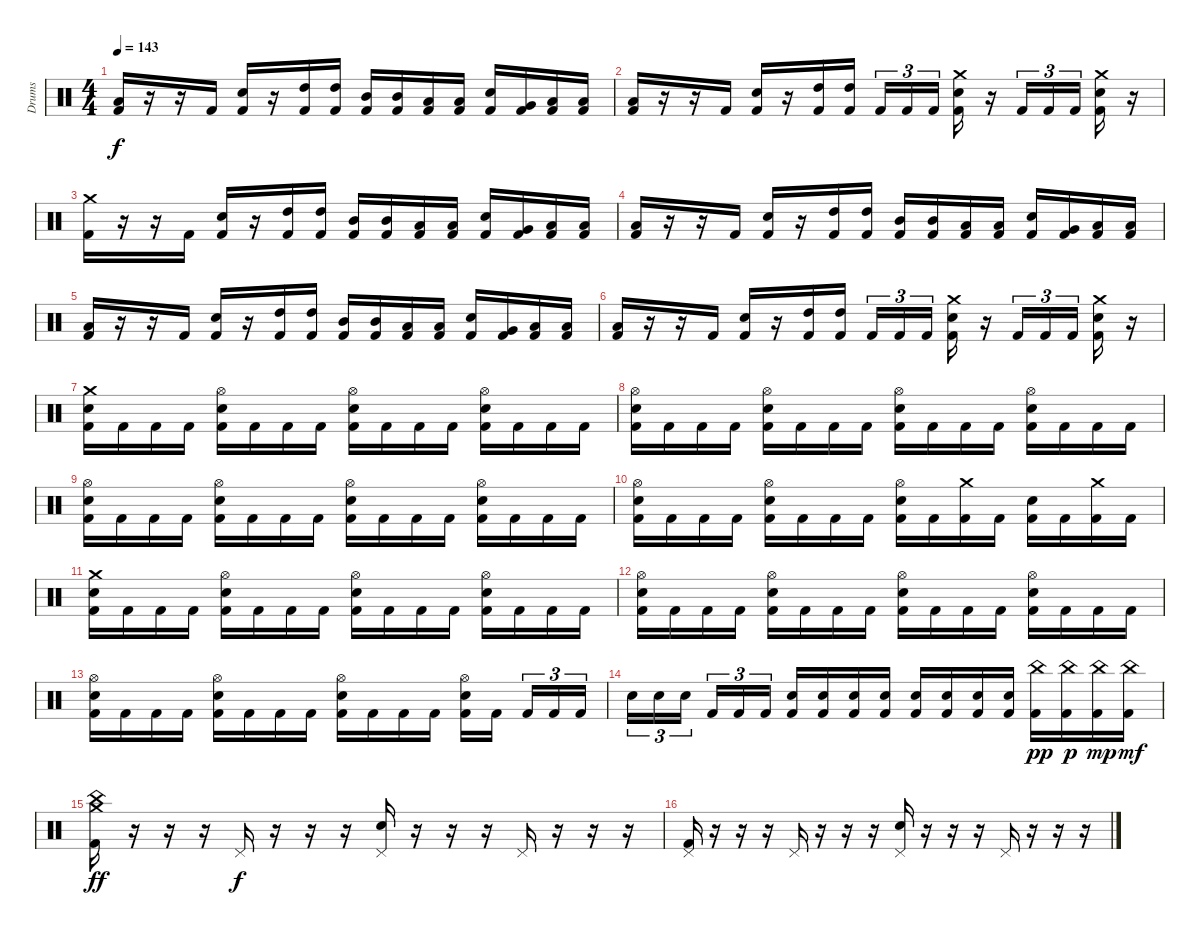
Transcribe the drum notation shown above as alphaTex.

\track ("Drums" "Drums") {instrument percussion}
\staff {score}
\articulation defaults
\ts (4 4)
\tempo 143
\clef neutral
\ks c
("Low Floor Tom (hit)" "Kick (hit) 2").16{dy f} r.16 r.16 "Kick (hit) 2".16 ("Electric Snare (hit)" "Kick (hit) 2").16 r.16 ("High Tom (hit)" "Kick (hit) 2").16 ("High Tom (hit)" "Kick (hit) 2").16 ("Mid Tom (hit)" "Kick (hit) 2").16 ("Mid Tom (hit)" "Kick (hit) 2").16 ("Low Tom (hit)" "Kick (hit) 2").16 ("Low Tom (hit)" "Kick (hit) 2").16 ("Electric Snare (hit)" "Kick (hit) 2").16 ("Very Low Tom (hit)" "Kick (hit) 2").16 ("Low Floor Tom (hit)" "Kick (hit) 2").16 ("Low Floor Tom (hit)" "Kick (hit) 2").16 |
("Low Floor Tom (hit)" "Kick (hit) 2").16 r.16 r.16 "Kick (hit) 2".16 ("Electric Snare (hit)" "Kick (hit) 2").16 r.16 ("High Tom (hit)" "Kick (hit) 2").16 ("High Tom (hit)" "Kick (hit) 2").16 "Kick (hit) 2".16{tu (3 2)} "Kick (hit) 2".16{tu (3 2)} "Kick (hit) 2".16{tu (3 2)} ("Crash medium (hit)" "Electric Snare (hit)" "Kick (hit) 2").16 r.16 "Kick (hit) 2".16{tu (3 2)} "Kick (hit) 2".16{tu (3 2)} "Kick (hit) 2".16{tu (3 2)} ("Crash medium (hit)" "Electric Snare (hit)" "Kick (hit) 2").16 r.16 |
("Crash medium (hit)" "Kick (hit) 2").16 r.16 r.16 "Kick (hit) 2".16 ("Electric Snare (hit)" "Kick (hit) 2").16 r.16 ("High Tom (hit)" "Kick (hit) 2").16 ("High Tom (hit)" "Kick (hit) 2").16 ("Mid Tom (hit)" "Kick (hit) 2").16 ("Mid Tom (hit)" "Kick (hit) 2").16 ("Low Tom (hit)" "Kick (hit) 2").16 ("Low Tom (hit)" "Kick (hit) 2").16 ("Electric Snare (hit)" "Kick (hit) 2").16 ("Very Low Tom (hit)" "Kick (hit) 2").16 ("Low Floor Tom (hit)" "Kick (hit) 2").16 ("Low Floor Tom (hit)" "Kick (hit) 2").16 |
("Low Floor Tom (hit)" "Kick (hit) 2").16 r.16 r.16 "Kick (hit) 2".16 ("Electric Snare (hit)" "Kick (hit) 2").16 r.16 ("High Tom (hit)" "Kick (hit) 2").16 ("High Tom (hit)" "Kick (hit) 2").16 ("Mid Tom (hit)" "Kick (hit) 2").16 ("Mid Tom (hit)" "Kick (hit) 2").16 ("Low Tom (hit)" "Kick (hit) 2").16 ("Low Tom (hit)" "Kick (hit) 2").16 ("Electric Snare (hit)" "Kick (hit) 2").16 ("Very Low Tom (hit)" "Kick (hit) 2").16 ("Low Floor Tom (hit)" "Kick (hit) 2").16 ("Low Floor Tom (hit)" "Kick (hit) 2").16 |
("Low Floor Tom (hit)" "Kick (hit) 2").16 r.16 r.16 "Kick (hit) 2".16 ("Electric Snare (hit)" "Kick (hit) 2").16 r.16 ("High Tom (hit)" "Kick (hit) 2").16 ("High Tom (hit)" "Kick (hit) 2").16 ("Mid Tom (hit)" "Kick (hit) 2").16 ("Mid Tom (hit)" "Kick (hit) 2").16 ("Low Tom (hit)" "Kick (hit) 2").16 ("Low Tom (hit)" "Kick (hit) 2").16 ("Electric Snare (hit)" "Kick (hit) 2").16 ("Very Low Tom (hit)" "Kick (hit) 2").16 ("Low Floor Tom (hit)" "Kick (hit) 2").16 ("Low Floor Tom (hit)" "Kick (hit) 2").16 |
("Low Floor Tom (hit)" "Kick (hit) 2").16 r.16 r.16 "Kick (hit) 2".16 ("Electric Snare (hit)" "Kick (hit) 2").16 r.16 ("High Tom (hit)" "Kick (hit) 2").16 ("High Tom (hit)" "Kick (hit) 2").16 "Kick (hit) 2".16{tu (3 2)} "Kick (hit) 2".16{tu (3 2)} "Kick (hit) 2".16{tu (3 2)} ("Crash medium (hit)" "Electric Snare (hit)" "Kick (hit) 2").16 r.16 "Kick (hit) 2".16{tu (3 2)} "Kick (hit) 2".16{tu (3 2)} "Kick (hit) 2".16{tu (3 2)} ("Crash medium (hit)" "Electric Snare (hit)" "Kick (hit) 2").16 r.16 |
("Crash medium (hit)" "Electric Snare (hit)" "Kick (hit) 2").16 "Kick (hit) 2".16 "Kick (hit) 2".16 "Kick (hit) 2".16 ("Hi-Hat (open)" "Electric Snare (hit)" "Kick (hit) 2").16 "Kick (hit) 2".16 "Kick (hit) 2".16 "Kick (hit) 2".16 ("Hi-Hat (open)" "Electric Snare (hit)" "Kick (hit) 2").16 "Kick (hit) 2".16 "Kick (hit) 2".16 "Kick (hit) 2".16 ("Hi-Hat (open)" "Electric Snare (hit)" "Kick (hit) 2").16 "Kick (hit) 2".16 "Kick (hit) 2".16 "Kick (hit) 2".16 |
("Hi-Hat (open)" "Electric Snare (hit)" "Kick (hit) 2").16 "Kick (hit) 2".16 "Kick (hit) 2".16 "Kick (hit) 2".16 ("Hi-Hat (open)" "Electric Snare (hit)" "Kick (hit) 2").16 "Kick (hit) 2".16 "Kick (hit) 2".16 "Kick (hit) 2".16 ("Hi-Hat (open)" "Electric Snare (hit)" "Kick (hit) 2").16 "Kick (hit) 2".16 "Kick (hit) 2".16 "Kick (hit) 2".16 ("Hi-Hat (open)" "Electric Snare (hit)" "Kick (hit) 2").16 "Kick (hit) 2".16 "Kick (hit) 2".16 "Kick (hit) 2".16 |
("Hi-Hat (open)" "Electric Snare (hit)" "Kick (hit) 2").16 "Kick (hit) 2".16 "Kick (hit) 2".16 "Kick (hit) 2".16 ("Hi-Hat (open)" "Electric Snare (hit)" "Kick (hit) 2").16 "Kick (hit) 2".16 "Kick (hit) 2".16 "Kick (hit) 2".16 ("Hi-Hat (open)" "Electric Snare (hit)" "Kick (hit) 2").16 "Kick (hit) 2".16 "Kick (hit) 2".16 "Kick (hit) 2".16 ("Hi-Hat (open)" "Electric Snare (hit)" "Kick (hit) 2").16 "Kick (hit) 2".16 "Kick (hit) 2".16 "Kick (hit) 2".16 |
("Hi-Hat (open)" "Electric Snare (hit)" "Kick (hit) 2").16 "Kick (hit) 2".16 "Kick (hit) 2".16 "Kick (hit) 2".16 ("Hi-Hat (open)" "Electric Snare (hit)" "Kick (hit) 2").16 "Kick (hit) 2".16 "Kick (hit) 2".16 "Kick (hit) 2".16 ("Hi-Hat (open)" "Electric Snare (hit)" "Kick (hit) 2").16 "Kick (hit) 2".16 ("Crash medium (hit)" "Kick (hit) 2").16 "Kick (hit) 2".16 ("Electric Snare (hit)" "Kick (hit) 2").16 "Kick (hit) 2".16 ("Crash medium (hit)" "Kick (hit) 2").16 "Kick (hit) 2".16 |
("Crash medium (hit)" "Electric Snare (hit)" "Kick (hit) 2").16 "Kick (hit) 2".16 "Kick (hit) 2".16 "Kick (hit) 2".16 ("Hi-Hat (open)" "Electric Snare (hit)" "Kick (hit) 2").16 "Kick (hit) 2".16 "Kick (hit) 2".16 "Kick (hit) 2".16 ("Hi-Hat (open)" "Electric Snare (hit)" "Kick (hit) 2").16 "Kick (hit) 2".16 "Kick (hit) 2".16 "Kick (hit) 2".16 ("Hi-Hat (open)" "Electric Snare (hit)" "Kick (hit) 2").16 "Kick (hit) 2".16 "Kick (hit) 2".16 "Kick (hit) 2".16 |
("Hi-Hat (open)" "Electric Snare (hit)" "Kick (hit) 2").16 "Kick (hit) 2".16 "Kick (hit) 2".16 "Kick (hit) 2".16 ("Hi-Hat (open)" "Electric Snare (hit)" "Kick (hit) 2").16 "Kick (hit) 2".16 "Kick (hit) 2".16 "Kick (hit) 2".16 ("Hi-Hat (open)" "Electric Snare (hit)" "Kick (hit) 2").16 "Kick (hit) 2".16 "Kick (hit) 2".16 "Kick (hit) 2".16 ("Hi-Hat (open)" "Electric Snare (hit)" "Kick (hit) 2").16 "Kick (hit) 2".16 "Kick (hit) 2".16 "Kick (hit) 2".16 |
("Hi-Hat (open)" "Electric Snare (hit)" "Kick (hit) 2").16 "Kick (hit) 2".16 "Kick (hit) 2".16 "Kick (hit) 2".16 ("Hi-Hat (open)" "Electric Snare (hit)" "Kick (hit) 2").16 "Kick (hit) 2".16 "Kick (hit) 2".16 "Kick (hit) 2".16 ("Hi-Hat (open)" "Electric Snare (hit)" "Kick (hit) 2").16 "Kick (hit) 2".16 "Kick (hit) 2".16 "Kick (hit) 2".16 ("Hi-Hat (open)" "Electric Snare (hit)" "Kick (hit) 2").16 "Kick (hit) 2".16 "Kick (hit) 2".16{tu (3 2)} "Kick (hit) 2".16{tu (3 2)} "Kick (hit) 2".16{tu (3 2)} |
"Electric Snare (hit)".16{tu (3 2)} "Electric Snare (hit)".16{tu (3 2)} "Electric Snare (hit)".16{tu (3 2)} "Kick (hit) 2".16{tu (3 2)} "Kick (hit) 2".16{tu (3 2)} "Kick (hit) 2".16{tu (3 2)} ("Electric Snare (hit)" "Kick (hit) 2").16 ("Electric Snare (hit)" "Kick (hit) 2").16 ("Electric Snare (hit)" "Kick (hit) 2").16 ("Electric Snare (hit)" "Kick (hit) 2").16 ("Electric Snare (hit)" "Kick (hit) 2").16 ("Electric Snare (hit)" "Kick (hit) 2").16 ("Electric Snare (hit)" "Kick (hit) 2").16 ("Electric Snare (hit)" "Kick (hit) 2").16 ("China (hit)" "Kick (hit) 2").16{dy pp} ("China (hit)" "Kick (hit) 2").16{dy p} ("China (hit)" "Kick (hit) 2").16{dy mp} ("China (hit)" "Kick (hit) 2").16{dy mf} |
\section ("" "")
("Crash medium (hit)" "China (hit)" "Kick (hit) 2").16{dy ff} r.16 r.16 r.16 "Pedal Hi-Hat (hit)".16{dy f} r.16 r.16 r.16 ("Pedal Hi-Hat (hit)" "Electric Snare (hit)").16 r.16 r.16 r.16 "Pedal Hi-Hat (hit)".16 r.16 r.16 r.16 |
("Pedal Hi-Hat (hit)" "Kick (hit) 2").16 r.16 r.16 r.16 "Pedal Hi-Hat (hit)".16 r.16 r.16 r.16 ("Pedal Hi-Hat (hit)" "Electric Snare (hit)").16 r.16 r.16 r.16 "Pedal Hi-Hat (hit)".16 r.16 r.16 r.16
